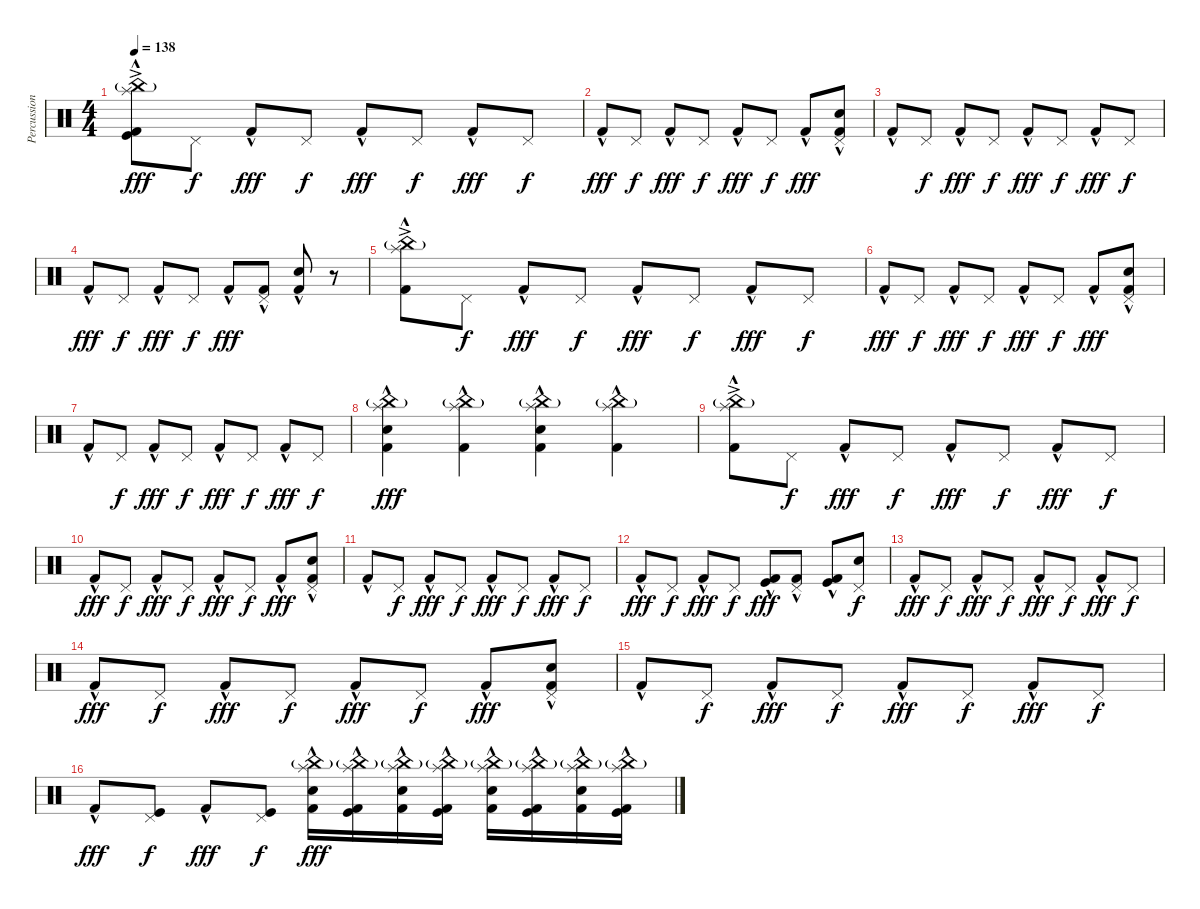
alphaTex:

\track ("Percussions" "Percussion") {instrument percussion}
\staff {score}
\articulation defaults
\ts (4 4)
\tempo 138
\clef neutral
\ks c
("Splash (hit)"{ac} "China (hit)"{g} "Kick (hit)" "Kick (hit) 2"{hac}).8{dy fff} "Pedal Hi-Hat (hit)".8{dy f} "Kick (hit) 2"{hac}.8{dy fff} "Pedal Hi-Hat (hit)".8{dy f} "Kick (hit) 2"{hac}.8{dy fff} "Pedal Hi-Hat (hit)".8{dy f} "Kick (hit) 2"{hac}.8{dy fff} "Pedal Hi-Hat (hit)".8{dy f} |
"Kick (hit) 2"{hac}.8{dy fff} "Pedal Hi-Hat (hit)".8{dy f} "Kick (hit) 2"{hac}.8{dy fff} "Pedal Hi-Hat (hit)".8{dy f} "Kick (hit) 2"{hac}.8{dy fff} "Pedal Hi-Hat (hit)".8{dy f} "Kick (hit) 2"{hac}.8{dy fff} ("Snare (hit) 2" "Pedal Hi-Hat (hit)" "Kick (hit) 2"{hac}).8 |
"Kick (hit) 2"{hac}.8 "Pedal Hi-Hat (hit)".8{dy f} "Kick (hit) 2"{hac}.8{dy fff} "Pedal Hi-Hat (hit)".8{dy f} "Kick (hit) 2"{hac}.8{dy fff} "Pedal Hi-Hat (hit)".8{dy f} "Kick (hit) 2"{hac}.8{dy fff} "Pedal Hi-Hat (hit)".8{dy f} |
"Kick (hit) 2"{hac}.8{dy fff} "Pedal Hi-Hat (hit)".8{dy f} "Kick (hit) 2"{hac}.8{dy fff} "Pedal Hi-Hat (hit)".8{dy f} "Kick (hit) 2"{hac}.8{dy fff} ("Pedal Hi-Hat (hit)" "Kick (hit) 2"{hac}).8 ("Snare (hit) 2" "Kick (hit) 2"{hac}).8 r.8 |
("Splash (hit)"{ac} "China (hit)"{g} "Kick (hit) 2"{hac}).8 "Pedal Hi-Hat (hit)".8{dy f} "Kick (hit) 2"{hac}.8{dy fff} "Pedal Hi-Hat (hit)".8{dy f} "Kick (hit) 2"{hac}.8{dy fff} "Pedal Hi-Hat (hit)".8{dy f} "Kick (hit) 2"{hac}.8{dy fff} "Pedal Hi-Hat (hit)".8{dy f} |
"Kick (hit) 2"{hac}.8{dy fff} "Pedal Hi-Hat (hit)".8{dy f} "Kick (hit) 2"{hac}.8{dy fff} "Pedal Hi-Hat (hit)".8{dy f} "Kick (hit) 2"{hac}.8{dy fff} "Pedal Hi-Hat (hit)".8{dy f} "Kick (hit) 2"{hac}.8{dy fff} ("Snare (hit) 2" "Pedal Hi-Hat (hit)" "Kick (hit) 2"{hac}).8 |
"Kick (hit) 2"{hac}.8 "Pedal Hi-Hat (hit)".8{dy f} "Kick (hit) 2"{hac}.8{dy fff} "Pedal Hi-Hat (hit)".8{dy f} "Kick (hit) 2"{hac}.8{dy fff} "Pedal Hi-Hat (hit)".8{dy f} "Kick (hit) 2"{hac}.8{dy fff} "Pedal Hi-Hat (hit)".8{dy f} |
("Splash (hit)" "China (hit)"{g} "Snare (hit) 2" "Kick (hit) 2"{hac}).4{dy fff} ("Splash (hit)" "China (hit)"{g} "Kick (hit) 2"{hac}).4 ("Splash (hit)" "China (hit)"{g} "Snare (hit) 2" "Kick (hit) 2"{hac}).4 ("Splash (hit)" "China (hit)"{g} "Kick (hit) 2"{hac}).4 |
("Splash (hit)"{ac} "China (hit)"{g} "Kick (hit) 2"{hac}).8 "Pedal Hi-Hat (hit)".8{dy f} "Kick (hit) 2"{hac}.8{dy fff} "Pedal Hi-Hat (hit)".8{dy f} "Kick (hit) 2"{hac}.8{dy fff} "Pedal Hi-Hat (hit)".8{dy f} "Kick (hit) 2"{hac}.8{dy fff} "Pedal Hi-Hat (hit)".8{dy f} |
"Kick (hit) 2"{hac}.8{dy fff} "Pedal Hi-Hat (hit)".8{dy f} "Kick (hit) 2"{hac}.8{dy fff} "Pedal Hi-Hat (hit)".8{dy f} "Kick (hit) 2"{hac}.8{dy fff} "Pedal Hi-Hat (hit)".8{dy f} "Kick (hit) 2"{hac}.8{dy fff} ("Snare (hit) 2" "Pedal Hi-Hat (hit)" "Kick (hit) 2"{hac}).8 |
"Kick (hit) 2"{hac}.8 "Pedal Hi-Hat (hit)".8{dy f} "Kick (hit) 2"{hac}.8{dy fff} "Pedal Hi-Hat (hit)".8{dy f} "Kick (hit) 2"{hac}.8{dy fff} "Pedal Hi-Hat (hit)".8{dy f} "Kick (hit) 2"{hac}.8{dy fff} "Pedal Hi-Hat (hit)".8{dy f} |
"Kick (hit) 2"{hac}.8{dy fff} "Pedal Hi-Hat (hit)".8{dy f} "Kick (hit) 2"{hac}.8{dy fff} "Pedal Hi-Hat (hit)".8{dy f} ("Kick (hit)" "Kick (hit) 2"{hac}).8{dy fff} ("Pedal Hi-Hat (hit)" "Kick (hit) 2"{hac}).8 ("Kick (hit)" "Kick (hit) 2"{hac}).8 ("Snare (hit) 2" "Pedal Hi-Hat (hit)").8{dy f} |
"Kick (hit) 2"{hac}.8{dy fff} "Pedal Hi-Hat (hit)".8{dy f} "Kick (hit) 2"{hac}.8{dy fff} "Pedal Hi-Hat (hit)".8{dy f} "Kick (hit) 2"{hac}.8{dy fff} "Pedal Hi-Hat (hit)".8{dy f} "Kick (hit) 2"{hac}.8{dy fff} "Pedal Hi-Hat (hit)".8{dy f} |
"Kick (hit) 2"{hac}.8{dy fff} "Pedal Hi-Hat (hit)".8{dy f} "Kick (hit) 2"{hac}.8{dy fff} "Pedal Hi-Hat (hit)".8{dy f} "Kick (hit) 2"{hac}.8{dy fff} "Pedal Hi-Hat (hit)".8{dy f} "Kick (hit) 2"{hac}.8{dy fff} ("Snare (hit) 2" "Pedal Hi-Hat (hit)" "Kick (hit) 2"{hac}).8 |
"Kick (hit) 2"{hac}.8 "Pedal Hi-Hat (hit)".8{dy f} "Kick (hit) 2"{hac}.8{dy fff} "Pedal Hi-Hat (hit)".8{dy f} "Kick (hit) 2"{hac}.8{dy fff} "Pedal Hi-Hat (hit)".8{dy f} "Kick (hit) 2"{hac}.8{dy fff} "Pedal Hi-Hat (hit)".8{dy f} |
"Kick (hit) 2"{hac}.8{dy fff} ("Pedal Hi-Hat (hit)" "Kick (hit)").8{dy f} "Kick (hit) 2"{hac}.8{dy fff} ("Pedal Hi-Hat (hit)" "Kick (hit)").8{dy f} ("Splash (hit)" "China (hit)"{g} "Snare (hit) 2" "Kick (hit) 2"{hac}).16{dy fff} ("Splash (hit)" "China (hit)"{g} "Kick (hit)" "Kick (hit) 2"{hac}).16 ("Splash (hit)" "China (hit)"{g} "Snare (hit) 2" "Kick (hit) 2"{hac}).16 ("Splash (hit)" "China (hit)"{g} "Kick (hit)" "Kick (hit) 2"{hac}).16 ("Splash (hit)" "China (hit)"{g} "Snare (hit) 2" "Kick (hit) 2"{hac}).16 ("Splash (hit)" "China (hit)"{g} "Kick (hit)" "Kick (hit) 2"{hac}).16 ("Splash (hit)" "China (hit)"{g} "Snare (hit) 2" "Kick (hit) 2"{hac}).16 ("Splash (hit)" "China (hit)"{g} "Kick (hit)" "Kick (hit) 2"{hac}).16
